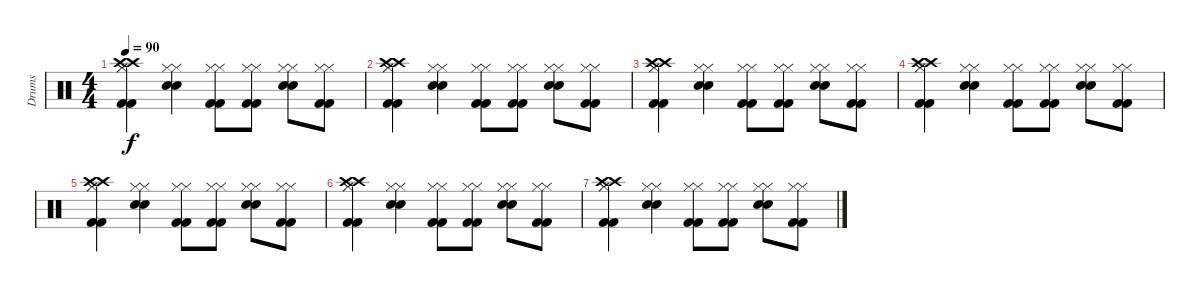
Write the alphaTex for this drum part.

\track ("Drums" "Drums") {instrument percussion}
\staff {score}
\articulation defaults
\ts (4 4)
\tempo 90
\clef neutral
\ks c
("Crash high (hit)" "Crash high (hit)" "Hi-Hat (closed)" "Hi-Hat (closed)" "Kick (hit) 2" "Kick (hit) 2").4{dy f} ("Hi-Hat (closed)" "Hi-Hat (closed)" "Snare (hit) 2" "Snare (hit) 2").4 ("Hi-Hat (closed)" "Hi-Hat (closed)" "Kick (hit) 2" "Kick (hit) 2").8 ("Hi-Hat (closed)" "Hi-Hat (closed)" "Kick (hit) 2" "Kick (hit) 2").8 ("Hi-Hat (closed)" "Hi-Hat (closed)" "Snare (hit) 2" "Snare (hit) 2").8 ("Hi-Hat (closed)" "Hi-Hat (closed)" "Kick (hit) 2" "Kick (hit) 2").8 |
("Crash high (hit)" "Crash high (hit)" "Hi-Hat (closed)" "Hi-Hat (closed)" "Kick (hit) 2" "Kick (hit) 2").4 ("Hi-Hat (closed)" "Hi-Hat (closed)" "Snare (hit) 2" "Snare (hit) 2").4 ("Hi-Hat (closed)" "Hi-Hat (closed)" "Kick (hit) 2" "Kick (hit) 2").8 ("Hi-Hat (closed)" "Hi-Hat (closed)" "Kick (hit) 2" "Kick (hit) 2").8 ("Hi-Hat (closed)" "Hi-Hat (closed)" "Snare (hit) 2" "Snare (hit) 2").8 ("Hi-Hat (closed)" "Hi-Hat (closed)" "Kick (hit) 2" "Kick (hit) 2").8 |
("Crash high (hit)" "Crash high (hit)" "Hi-Hat (closed)" "Hi-Hat (closed)" "Kick (hit) 2" "Kick (hit) 2").4 ("Hi-Hat (closed)" "Hi-Hat (closed)" "Snare (hit) 2" "Snare (hit) 2").4 ("Hi-Hat (closed)" "Hi-Hat (closed)" "Kick (hit) 2" "Kick (hit) 2").8 ("Hi-Hat (closed)" "Hi-Hat (closed)" "Kick (hit) 2" "Kick (hit) 2").8 ("Hi-Hat (closed)" "Hi-Hat (closed)" "Snare (hit) 2" "Snare (hit) 2").8 ("Hi-Hat (closed)" "Hi-Hat (closed)" "Kick (hit) 2" "Kick (hit) 2").8 |
("Crash high (hit)" "Crash high (hit)" "Hi-Hat (closed)" "Hi-Hat (closed)" "Kick (hit) 2" "Kick (hit) 2").4 ("Hi-Hat (closed)" "Hi-Hat (closed)" "Snare (hit) 2" "Snare (hit) 2").4 ("Hi-Hat (closed)" "Hi-Hat (closed)" "Kick (hit) 2" "Kick (hit) 2").8 ("Hi-Hat (closed)" "Hi-Hat (closed)" "Kick (hit) 2" "Kick (hit) 2").8 ("Hi-Hat (closed)" "Hi-Hat (closed)" "Snare (hit) 2" "Snare (hit) 2").8 ("Hi-Hat (closed)" "Hi-Hat (closed)" "Kick (hit) 2" "Kick (hit) 2").8 |
("Crash high (hit)" "Crash high (hit)" "Hi-Hat (closed)" "Hi-Hat (closed)" "Kick (hit) 2" "Kick (hit) 2").4 ("Hi-Hat (closed)" "Hi-Hat (closed)" "Snare (hit) 2" "Snare (hit) 2").4 ("Hi-Hat (closed)" "Hi-Hat (closed)" "Kick (hit) 2" "Kick (hit) 2").8 ("Hi-Hat (closed)" "Hi-Hat (closed)" "Kick (hit) 2" "Kick (hit) 2").8 ("Hi-Hat (closed)" "Hi-Hat (closed)" "Snare (hit) 2" "Snare (hit) 2").8 ("Hi-Hat (closed)" "Hi-Hat (closed)" "Kick (hit) 2" "Kick (hit) 2").8 |
("Crash high (hit)" "Crash high (hit)" "Hi-Hat (closed)" "Hi-Hat (closed)" "Kick (hit) 2" "Kick (hit) 2").4 ("Hi-Hat (closed)" "Hi-Hat (closed)" "Snare (hit) 2" "Snare (hit) 2").4 ("Hi-Hat (closed)" "Hi-Hat (closed)" "Kick (hit) 2" "Kick (hit) 2").8 ("Hi-Hat (closed)" "Hi-Hat (closed)" "Kick (hit) 2" "Kick (hit) 2").8 ("Hi-Hat (closed)" "Hi-Hat (closed)" "Snare (hit) 2" "Snare (hit) 2").8 ("Hi-Hat (closed)" "Hi-Hat (closed)" "Kick (hit) 2" "Kick (hit) 2").8 |
("Crash high (hit)" "Crash high (hit)" "Hi-Hat (closed)" "Hi-Hat (closed)" "Kick (hit) 2" "Kick (hit) 2").4 ("Hi-Hat (closed)" "Hi-Hat (closed)" "Snare (hit) 2" "Snare (hit) 2").4 ("Hi-Hat (closed)" "Hi-Hat (closed)" "Kick (hit) 2" "Kick (hit) 2").8 ("Hi-Hat (closed)" "Hi-Hat (closed)" "Kick (hit) 2" "Kick (hit) 2").8 ("Hi-Hat (closed)" "Hi-Hat (closed)" "Snare (hit) 2" "Snare (hit) 2").8 ("Hi-Hat (closed)" "Hi-Hat (closed)" "Kick (hit) 2" "Kick (hit) 2").8
